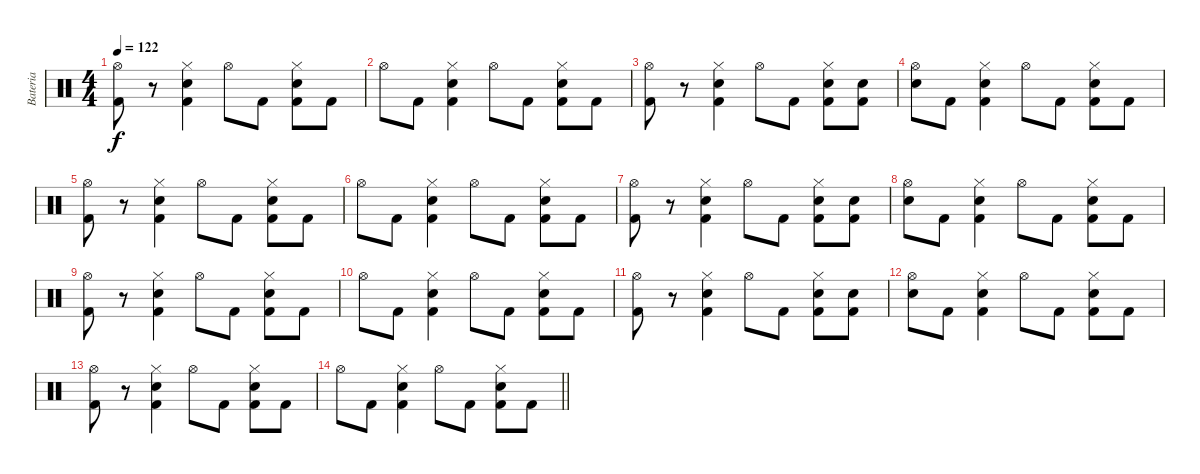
\track ("Bateria" "Bateria") {instrument percussion}
\staff {score}
\articulation defaults
\ts (4 4)
\tempo 122
\clef neutral
\ks c
("Kick (hit) 2" "Hi-Hat (open)").8{dy f} r.8 ("Kick (hit) 2" "Snare (hit) 2" "Hi-Hat (closed)").4 "Hi-Hat (open)".8 "Kick (hit) 2".8 ("Kick (hit) 2" "Snare (hit) 2" "Hi-Hat (closed)").8 "Kick (hit) 2".8 |
"Hi-Hat (open)".8 "Kick (hit) 2".8 ("Kick (hit) 2" "Snare (hit) 2" "Hi-Hat (closed)").4 "Hi-Hat (open)".8 "Kick (hit) 2".8 ("Kick (hit) 2" "Snare (hit) 2" "Hi-Hat (closed)").8 "Kick (hit) 2".8 |
("Kick (hit) 2" "Hi-Hat (open)").8 r.8 ("Kick (hit) 2" "Snare (hit) 2" "Hi-Hat (closed)").4 "Hi-Hat (open)".8 "Kick (hit) 2".8 ("Kick (hit) 2" "Snare (hit) 2" "Hi-Hat (closed)").8 ("Kick (hit) 2" "Snare (hit)").8 |
("Hi-Hat (open)" "Snare (hit)").8 "Kick (hit) 2".8 ("Kick (hit) 2" "Snare (hit) 2" "Hi-Hat (closed)").4 "Hi-Hat (open)".8 "Kick (hit) 2".8 ("Kick (hit) 2" "Snare (hit) 2" "Hi-Hat (closed)").8 "Kick (hit) 2".8 |
("Kick (hit) 2" "Hi-Hat (open)").8 r.8 ("Kick (hit) 2" "Snare (hit) 2" "Hi-Hat (closed)").4 "Hi-Hat (open)".8 "Kick (hit) 2".8 ("Kick (hit) 2" "Snare (hit) 2" "Hi-Hat (closed)").8 "Kick (hit) 2".8 |
"Hi-Hat (open)".8 "Kick (hit) 2".8 ("Kick (hit) 2" "Snare (hit) 2" "Hi-Hat (closed)").4 "Hi-Hat (open)".8 "Kick (hit) 2".8 ("Kick (hit) 2" "Snare (hit) 2" "Hi-Hat (closed)").8 "Kick (hit) 2".8 |
("Kick (hit) 2" "Hi-Hat (open)").8 r.8 ("Kick (hit) 2" "Snare (hit) 2" "Hi-Hat (closed)").4 "Hi-Hat (open)".8 "Kick (hit) 2".8 ("Kick (hit) 2" "Snare (hit) 2" "Hi-Hat (closed)").8 ("Kick (hit) 2" "Snare (hit)").8 |
("Hi-Hat (open)" "Snare (hit)").8 "Kick (hit) 2".8 ("Kick (hit) 2" "Snare (hit) 2" "Hi-Hat (closed)").4 "Hi-Hat (open)".8 "Kick (hit) 2".8 ("Kick (hit) 2" "Snare (hit) 2" "Hi-Hat (closed)").8 "Kick (hit) 2".8 |
("Kick (hit) 2" "Hi-Hat (open)").8 r.8 ("Kick (hit) 2" "Snare (hit) 2" "Hi-Hat (closed)").4 "Hi-Hat (open)".8 "Kick (hit) 2".8 ("Kick (hit) 2" "Snare (hit) 2" "Hi-Hat (closed)").8 "Kick (hit) 2".8 |
"Hi-Hat (open)".8 "Kick (hit) 2".8 ("Kick (hit) 2" "Snare (hit) 2" "Hi-Hat (closed)").4 "Hi-Hat (open)".8 "Kick (hit) 2".8 ("Kick (hit) 2" "Snare (hit) 2" "Hi-Hat (closed)").8 "Kick (hit) 2".8 |
("Kick (hit) 2" "Hi-Hat (open)").8 r.8 ("Kick (hit) 2" "Snare (hit) 2" "Hi-Hat (closed)").4 "Hi-Hat (open)".8 "Kick (hit) 2".8 ("Kick (hit) 2" "Snare (hit) 2" "Hi-Hat (closed)").8 ("Kick (hit) 2" "Snare (hit)").8 |
("Hi-Hat (open)" "Snare (hit)").8 "Kick (hit) 2".8 ("Kick (hit) 2" "Snare (hit) 2" "Hi-Hat (closed)").4 "Hi-Hat (open)".8 "Kick (hit) 2".8 ("Kick (hit) 2" "Snare (hit) 2" "Hi-Hat (closed)").8 "Kick (hit) 2".8 |
("Kick (hit) 2" "Hi-Hat (open)").8 r.8 ("Kick (hit) 2" "Snare (hit) 2" "Hi-Hat (closed)").4 "Hi-Hat (open)".8 "Kick (hit) 2".8 ("Kick (hit) 2" "Snare (hit) 2" "Hi-Hat (closed)").8 "Kick (hit) 2".8 |
\barLineRight lightlight "Hi-Hat (open)".8 "Kick (hit) 2".8
("Kick (hit) 2" "Snare (hit) 2" "Hi-Hat (closed)").4 "Hi-Hat (open)".8 "Kick (hit) 2".8 ("Kick (hit) 2" "Snare (hit) 2" "Hi-Hat (closed)").8 "Kick (hit) 2".8
